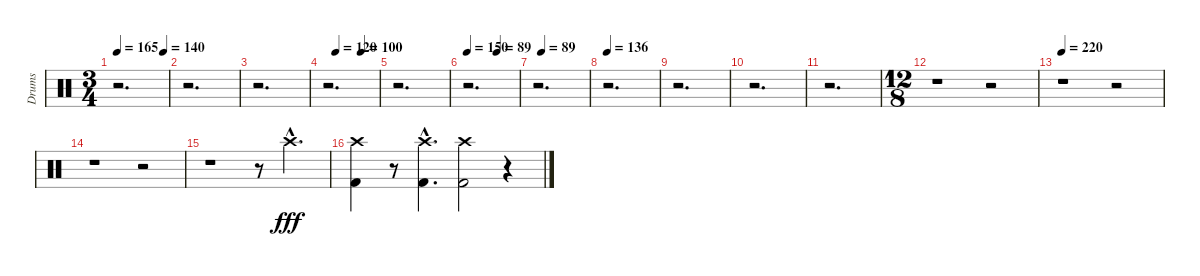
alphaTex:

\track ("Drums" "Drums") {instrument percussion}
\staff {score}
\articulation defaults
\ts (3 4)
\tempo 165
\tempo (140 0.9166666666666666)
\clef neutral
\ks c
r.2{d dy fff} |
r.2{d} |
r.2{d} |
\tempo (120 0.16666666666666666)
\tempo (100 0.6666666666666666)
r.2{d} |
r.2{d} |
\tempo 150
\tempo (89 0.5833333333333334)
r.2{d} |
\tempo (89 0.08333333333333333)
r.2{d} |
\tempo 136
r.2{d} |
r.2{d} |
r.2{d} |
r.2{d} |
\ts (12 8)
r.1 r.2 |
\tempo 220
r.1 r.2 |
r.1 r.2 |
r.1 r.8 "Crash high (hit)"{hac}.4{d} |
("Kick (hit) 2" "Crash high (hit)").4 r.8 ("Kick (hit) 2" "Crash high (hit)"{hac}).4{d} ("Kick (hit) 2" "Crash high (hit)").2 r.4
